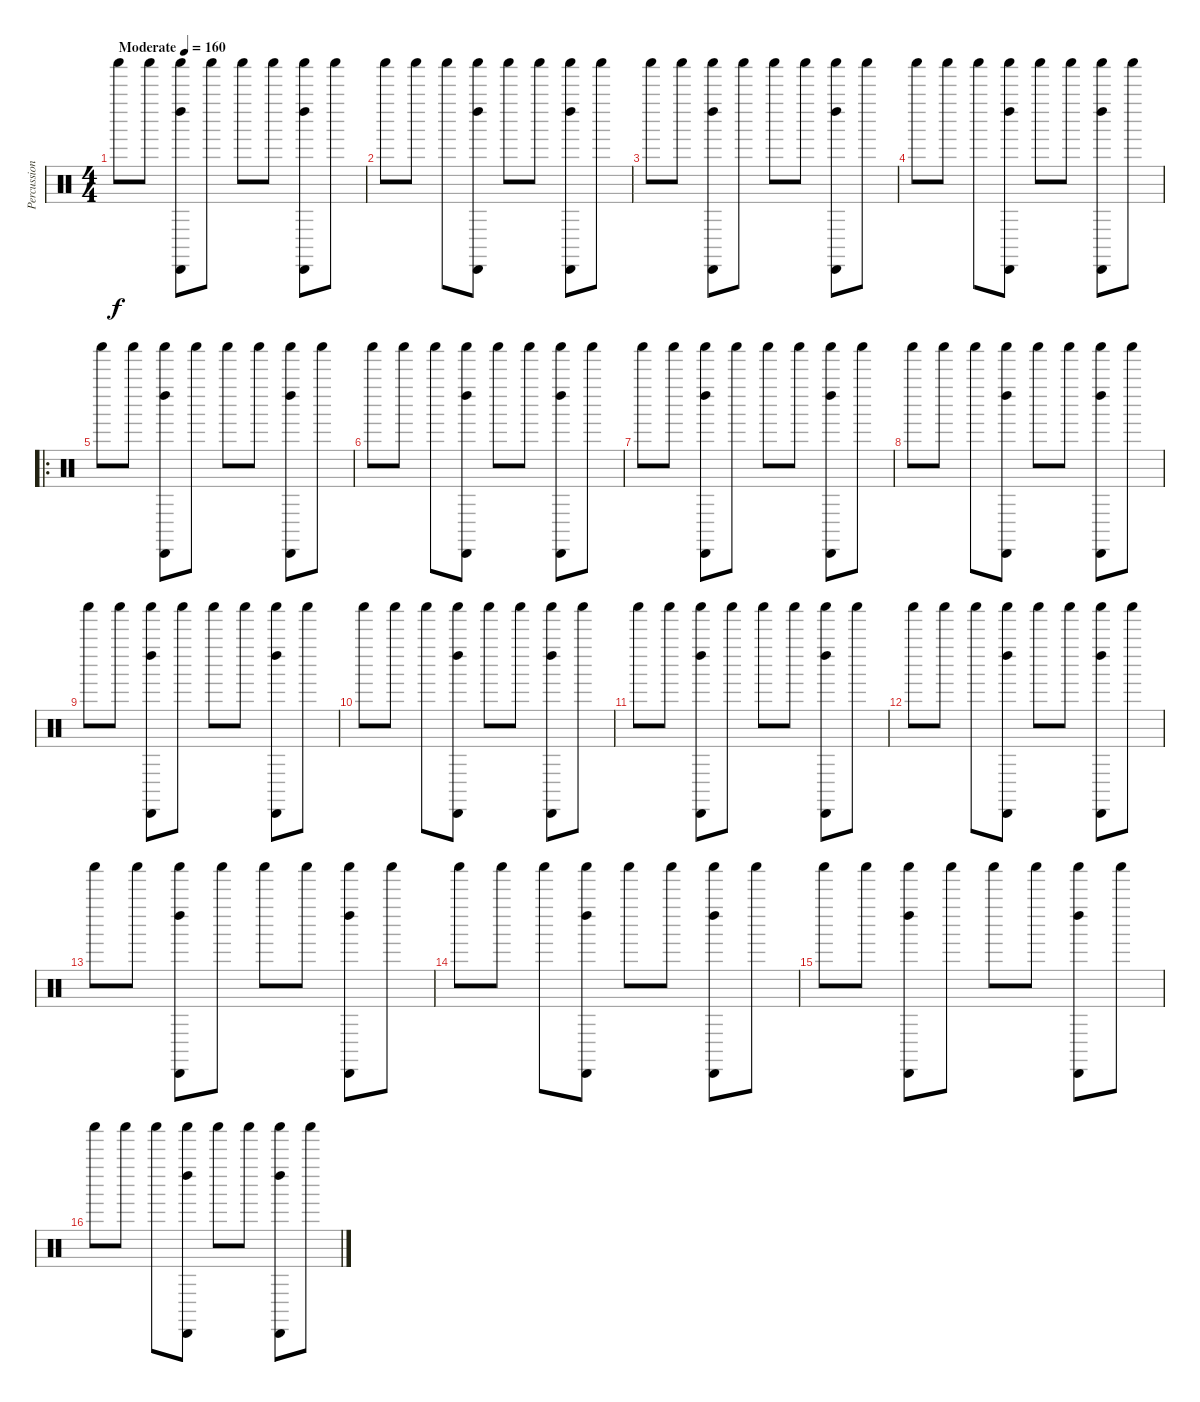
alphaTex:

\track ("Percussion" "Percussion") {instrument percussion}
\staff {score}
\articulation defaults
\ts (4 4)
\tempo (160 "Moderate")
\clef neutral
\ks c "Shaker (hit)".8{dy f} "Shaker (hit)".8
("Left Maraca (hit)" "Cabasa (hit)" "Shaker (hit)").8 "Shaker (hit)".8 "Shaker (hit)".8 "Shaker (hit)".8 ("Left Maraca (hit)" "Cabasa (hit)" "Shaker (hit)").8 "Shaker (hit)".8 |
"Shaker (hit)".8 "Shaker (hit)".8 "Shaker (hit)".8 ("Left Maraca (hit)" "Cabasa (hit)" "Shaker (hit)").8 "Shaker (hit)".8 "Shaker (hit)".8 ("Left Maraca (hit)" "Cabasa (hit)" "Shaker (hit)").8 "Shaker (hit)".8 |
"Shaker (hit)".8 "Shaker (hit)".8 ("Left Maraca (hit)" "Cabasa (hit)" "Shaker (hit)").8 "Shaker (hit)".8 "Shaker (hit)".8 "Shaker (hit)".8 ("Left Maraca (hit)" "Cabasa (hit)" "Shaker (hit)").8 "Shaker (hit)".8 |
"Shaker (hit)".8 "Shaker (hit)".8 "Shaker (hit)".8 ("Left Maraca (hit)" "Cabasa (hit)" "Shaker (hit)").8 "Shaker (hit)".8 "Shaker (hit)".8 ("Left Maraca (hit)" "Cabasa (hit)" "Shaker (hit)").8 "Shaker (hit)".8 |
\ro "Shaker (hit)".8 "Shaker (hit)".8
("Left Maraca (hit)" "Cabasa (hit)" "Shaker (hit)").8 "Shaker (hit)".8 "Shaker (hit)".8 "Shaker (hit)".8 ("Left Maraca (hit)" "Cabasa (hit)" "Shaker (hit)").8 "Shaker (hit)".8 |
"Shaker (hit)".8 "Shaker (hit)".8 "Shaker (hit)".8 ("Left Maraca (hit)" "Cabasa (hit)" "Shaker (hit)").8 "Shaker (hit)".8 "Shaker (hit)".8 ("Left Maraca (hit)" "Cabasa (hit)" "Shaker (hit)").8 "Shaker (hit)".8 |
"Shaker (hit)".8 "Shaker (hit)".8 ("Left Maraca (hit)" "Cabasa (hit)" "Shaker (hit)").8 "Shaker (hit)".8 "Shaker (hit)".8 "Shaker (hit)".8 ("Left Maraca (hit)" "Cabasa (hit)" "Shaker (hit)").8 "Shaker (hit)".8 |
"Shaker (hit)".8 "Shaker (hit)".8 "Shaker (hit)".8 ("Left Maraca (hit)" "Cabasa (hit)" "Shaker (hit)").8 "Shaker (hit)".8 "Shaker (hit)".8 ("Left Maraca (hit)" "Cabasa (hit)" "Shaker (hit)").8 "Shaker (hit)".8 |
"Shaker (hit)".8 "Shaker (hit)".8 ("Left Maraca (hit)" "Cabasa (hit)" "Shaker (hit)").8 "Shaker (hit)".8 "Shaker (hit)".8 "Shaker (hit)".8 ("Left Maraca (hit)" "Cabasa (hit)" "Shaker (hit)").8 "Shaker (hit)".8 |
"Shaker (hit)".8 "Shaker (hit)".8 "Shaker (hit)".8 ("Left Maraca (hit)" "Cabasa (hit)" "Shaker (hit)").8 "Shaker (hit)".8 "Shaker (hit)".8 ("Left Maraca (hit)" "Cabasa (hit)" "Shaker (hit)").8 "Shaker (hit)".8 |
"Shaker (hit)".8 "Shaker (hit)".8 ("Left Maraca (hit)" "Cabasa (hit)" "Shaker (hit)").8 "Shaker (hit)".8 "Shaker (hit)".8 "Shaker (hit)".8 ("Left Maraca (hit)" "Cabasa (hit)" "Shaker (hit)").8 "Shaker (hit)".8 |
"Shaker (hit)".8 "Shaker (hit)".8 "Shaker (hit)".8 ("Left Maraca (hit)" "Cabasa (hit)" "Shaker (hit)").8 "Shaker (hit)".8 "Shaker (hit)".8 ("Left Maraca (hit)" "Cabasa (hit)" "Shaker (hit)").8 "Shaker (hit)".8 |
"Shaker (hit)".8 "Shaker (hit)".8 ("Left Maraca (hit)" "Cabasa (hit)" "Shaker (hit)").8 "Shaker (hit)".8 "Shaker (hit)".8 "Shaker (hit)".8 ("Left Maraca (hit)" "Cabasa (hit)" "Shaker (hit)").8 "Shaker (hit)".8 |
"Shaker (hit)".8 "Shaker (hit)".8 "Shaker (hit)".8 ("Left Maraca (hit)" "Cabasa (hit)" "Shaker (hit)").8 "Shaker (hit)".8 "Shaker (hit)".8 ("Left Maraca (hit)" "Cabasa (hit)" "Shaker (hit)").8 "Shaker (hit)".8 |
"Shaker (hit)".8 "Shaker (hit)".8 ("Left Maraca (hit)" "Cabasa (hit)" "Shaker (hit)").8 "Shaker (hit)".8 "Shaker (hit)".8 "Shaker (hit)".8 ("Left Maraca (hit)" "Cabasa (hit)" "Shaker (hit)").8 "Shaker (hit)".8 |
"Shaker (hit)".8 "Shaker (hit)".8 "Shaker (hit)".8 ("Left Maraca (hit)" "Cabasa (hit)" "Shaker (hit)").8 "Shaker (hit)".8 "Shaker (hit)".8 ("Left Maraca (hit)" "Cabasa (hit)" "Shaker (hit)").8 "Shaker (hit)".8
